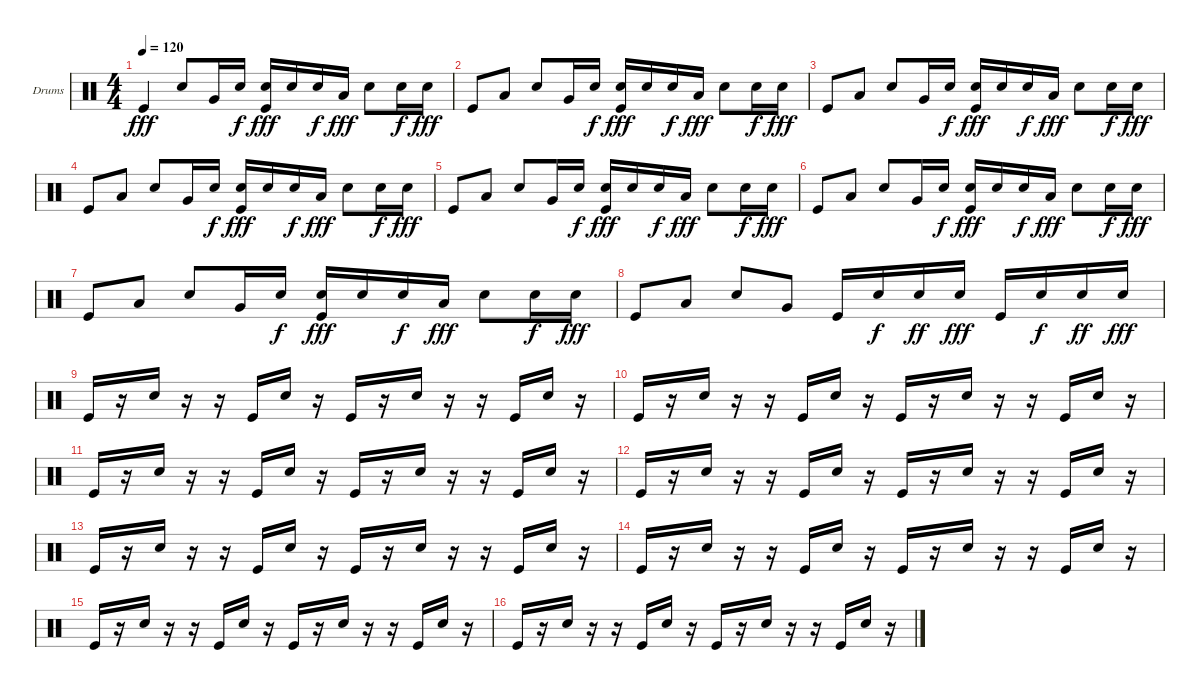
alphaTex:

\defaultSystemsLayout 4
\bracketExtendMode groupsimilarinstruments
\firstSystemTrackNameOrientation horizontal
\otherSystemsTrackNameOrientation horizontal
\track ("Пашок" "Drums") {instrument percussion}
\staff {score}
\articulation defaults
\ts (4 4)
\tempo 120
\clef neutral
\ks c "Kick (hit)".4{dy fff} "Snare (hit) 2".8 "Very Low Tom (hit)".16 "Snare (hit) 2".16{dy f}
("Kick (hit)" "Snare (hit) 2").16{dy fff} "Snare (hit) 2".16 "Snare (hit) 2".16{dy f} "Low Tom (hit)".16{dy fff} "Snare (hit) 2".8 "Snare (hit) 2".16{dy f} "Snare (hit) 2".16{dy fff} |
"Kick (hit)".8 "Low Tom (hit)".8 "Snare (hit) 2".8 "Very Low Tom (hit)".16 "Snare (hit) 2".16{dy f} ("Kick (hit)" "Snare (hit) 2").16{dy fff} "Snare (hit) 2".16 "Snare (hit) 2".16{dy f} "Low Tom (hit)".16{dy fff} "Snare (hit) 2".8 "Snare (hit) 2".16{dy f} "Snare (hit) 2".16{dy fff} |
"Kick (hit)".8 "Low Tom (hit)".8 "Snare (hit) 2".8 "Very Low Tom (hit)".16 "Snare (hit) 2".16{dy f} ("Kick (hit)" "Snare (hit) 2").16{dy fff} "Snare (hit) 2".16 "Snare (hit) 2".16{dy f} "Low Tom (hit)".16{dy fff} "Snare (hit) 2".8 "Snare (hit) 2".16{dy f} "Snare (hit) 2".16{dy fff} |
"Kick (hit)".8 "Low Tom (hit)".8 "Snare (hit) 2".8 "Very Low Tom (hit)".16 "Snare (hit) 2".16{dy f} ("Kick (hit)" "Snare (hit) 2").16{dy fff} "Snare (hit) 2".16 "Snare (hit) 2".16{dy f} "Low Tom (hit)".16{dy fff} "Snare (hit) 2".8 "Snare (hit) 2".16{dy f} "Snare (hit) 2".16{dy fff} |
"Kick (hit)".8 "Low Tom (hit)".8 "Snare (hit) 2".8 "Very Low Tom (hit)".16 "Snare (hit) 2".16{dy f} ("Kick (hit)" "Snare (hit) 2").16{dy fff} "Snare (hit) 2".16 "Snare (hit) 2".16{dy f} "Low Tom (hit)".16{dy fff} "Snare (hit) 2".8 "Snare (hit) 2".16{dy f} "Snare (hit) 2".16{dy fff} |
"Kick (hit)".8 "Low Tom (hit)".8 "Snare (hit) 2".8 "Very Low Tom (hit)".16 "Snare (hit) 2".16{dy f} ("Kick (hit)" "Snare (hit) 2").16{dy fff} "Snare (hit) 2".16 "Snare (hit) 2".16{dy f} "Low Tom (hit)".16{dy fff} "Snare (hit) 2".8 "Snare (hit) 2".16{dy f} "Snare (hit) 2".16{dy fff} |
"Kick (hit)".8 "Low Tom (hit)".8 "Snare (hit) 2".8 "Very Low Tom (hit)".16 "Snare (hit) 2".16{dy f} ("Kick (hit)" "Snare (hit) 2").16{dy fff} "Snare (hit) 2".16 "Snare (hit) 2".16{dy f} "Low Tom (hit)".16{dy fff} "Snare (hit) 2".8 "Snare (hit) 2".16{dy f} "Snare (hit) 2".16{dy fff} |
"Kick (hit)".8 "Low Tom (hit)".8 "Snare (hit) 2".8 "Very Low Tom (hit)".8 "Kick (hit)".16 "Snare (hit) 2".16{dy f} "Snare (hit) 2".16{dy ff} "Snare (hit) 2".16{dy fff} "Kick (hit)".16 "Snare (hit) 2".16{dy f} "Snare (hit) 2".16{dy ff} "Snare (hit) 2".16{dy fff} |
"Kick (hit)".16 r.16 "Snare (hit) 2".16 r.16 r.16 "Kick (hit)".16 "Snare (hit) 2".16 r.16 "Kick (hit)".16 r.16 "Snare (hit) 2".16 r.16 r.16 "Kick (hit)".16 "Snare (hit) 2".16 r.16 |
"Kick (hit)".16 r.16 "Snare (hit) 2".16 r.16 r.16 "Kick (hit)".16 "Snare (hit) 2".16 r.16 "Kick (hit)".16 r.16 "Snare (hit) 2".16 r.16 r.16 "Kick (hit)".16 "Snare (hit) 2".16 r.16 |
"Kick (hit)".16 r.16 "Snare (hit) 2".16 r.16 r.16 "Kick (hit)".16 "Snare (hit) 2".16 r.16 "Kick (hit)".16 r.16 "Snare (hit) 2".16 r.16 r.16 "Kick (hit)".16 "Snare (hit) 2".16 r.16 |
"Kick (hit)".16 r.16 "Snare (hit) 2".16 r.16 r.16 "Kick (hit)".16 "Snare (hit) 2".16 r.16 "Kick (hit)".16 r.16 "Snare (hit) 2".16 r.16 r.16 "Kick (hit)".16 "Snare (hit) 2".16 r.16 |
"Kick (hit)".16 r.16 "Snare (hit) 2".16 r.16 r.16 "Kick (hit)".16 "Snare (hit) 2".16 r.16 "Kick (hit)".16 r.16 "Snare (hit) 2".16 r.16 r.16 "Kick (hit)".16 "Snare (hit) 2".16 r.16 |
"Kick (hit)".16 r.16 "Snare (hit) 2".16 r.16 r.16 "Kick (hit)".16 "Snare (hit) 2".16 r.16 "Kick (hit)".16 r.16 "Snare (hit) 2".16 r.16 r.16 "Kick (hit)".16 "Snare (hit) 2".16 r.16 |
"Kick (hit)".16 r.16 "Snare (hit) 2".16 r.16 r.16 "Kick (hit)".16 "Snare (hit) 2".16 r.16 "Kick (hit)".16 r.16 "Snare (hit) 2".16 r.16 r.16 "Kick (hit)".16 "Snare (hit) 2".16 r.16 |
"Kick (hit)".16 r.16 "Snare (hit) 2".16 r.16 r.16 "Kick (hit)".16 "Snare (hit) 2".16 r.16 "Kick (hit)".16 r.16 "Snare (hit) 2".16 r.16 r.16 "Kick (hit)".16 "Snare (hit) 2".16 r.16
